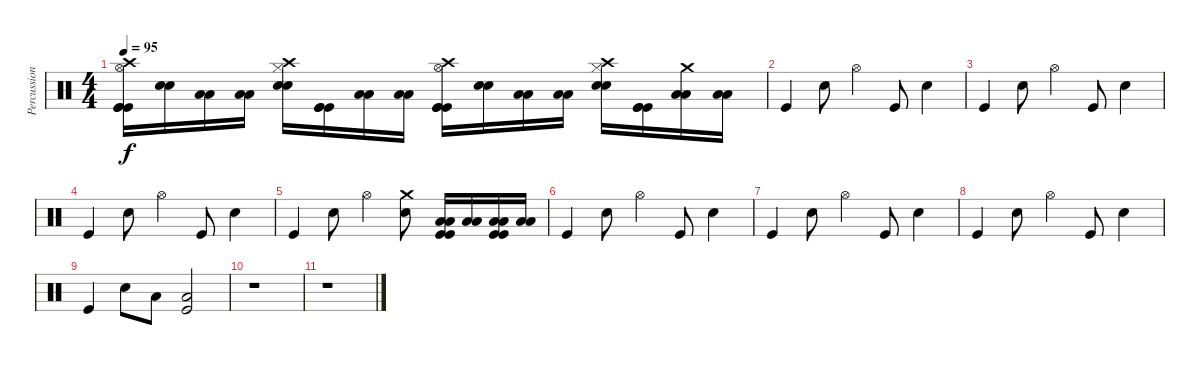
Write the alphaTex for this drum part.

\track ("Percussion" "Percussion") {instrument percussion}
\staff {score}
\articulation defaults
\ts (4 4)
\tempo 95
\clef neutral
\ks c
("Crash high (hit)" "Hi-Hat (open)" "Kick (hit)" "Kick (hit)" "Kick (hit)").16{dy f} ("Snare (hit) 2" "Snare (hit) 2").16 ("Low Tom (hit)" "Low Tom (hit)").16 ("Low Tom (hit)" "Low Tom (hit)").16 ("Crash high (hit)" "Hi-Hat (closed)" "Snare (hit) 2" "Snare (hit) 2").16 ("Kick (hit)" "Kick (hit)" "Kick (hit)").16 ("Low Floor Tom (hit)" "Low Floor Tom (hit)").16 ("Low Floor Tom (hit)" "Low Floor Tom (hit)").16 ("Crash high (hit)" "Hi-Hat (open)" "Kick (hit)" "Kick (hit)" "Kick (hit)").16 ("Snare (hit) 2" "Snare (hit) 2").16 ("Low Tom (hit)" "Low Tom (hit)").16 ("Low Tom (hit)" "Low Tom (hit)").16 ("Crash high (hit)" "Hi-Hat (closed)" "Snare (hit) 2" "Snare (hit) 2").16 ("Kick (hit)" "Kick (hit)" "Kick (hit)").16 ("Crash medium (hit)" "Low Floor Tom (hit)" "Low Floor Tom (hit)").16 ("Low Floor Tom (hit)" "Low Floor Tom (hit)").16 |
"Kick (hit)".4{volume 14} "Snare (hit) 2".8 "Hi-Hat (open)".4 "Kick (hit)".8 "Snare (hit) 2".4 |
"Kick (hit)".4 "Snare (hit) 2".8 "Hi-Hat (open)".4 "Kick (hit)".8 "Snare (hit) 2".4 |
"Kick (hit)".4 "Snare (hit) 2".8 "Hi-Hat (open)".4 "Kick (hit)".8 "Snare (hit) 2".4 |
"Kick (hit)".4 "Snare (hit) 2".8 "Hi-Hat (open)".4 ("Crash medium (hit)" "Snare (hit) 2").8 ("Kick (hit)" "Low Tom (hit)" "Low Tom (hit)" "Kick (hit)").16 ("Low Tom (hit)" "Low Tom (hit)").16 ("Kick (hit)" "Low Floor Tom (hit)" "Low Floor Tom (hit)" "Kick (hit)").16 ("Low Floor Tom (hit)" "Low Floor Tom (hit)").16 |
"Kick (hit)".4 "Snare (hit) 2".8 "Hi-Hat (open)".4 "Kick (hit)".8 "Snare (hit) 2".4 |
"Kick (hit)".4 "Snare (hit) 2".8 "Hi-Hat (open)".4 "Kick (hit)".8 "Snare (hit) 2".4 |
"Kick (hit)".4 "Snare (hit) 2".8 "Hi-Hat (open)".4 "Kick (hit)".8 "Snare (hit) 2".4 |
"Kick (hit)".4 "Snare (hit) 2".8 "Low Tom (hit)".8 ("Low Tom (hit)" "Kick (hit)").2 |
r.1 |
r.1
